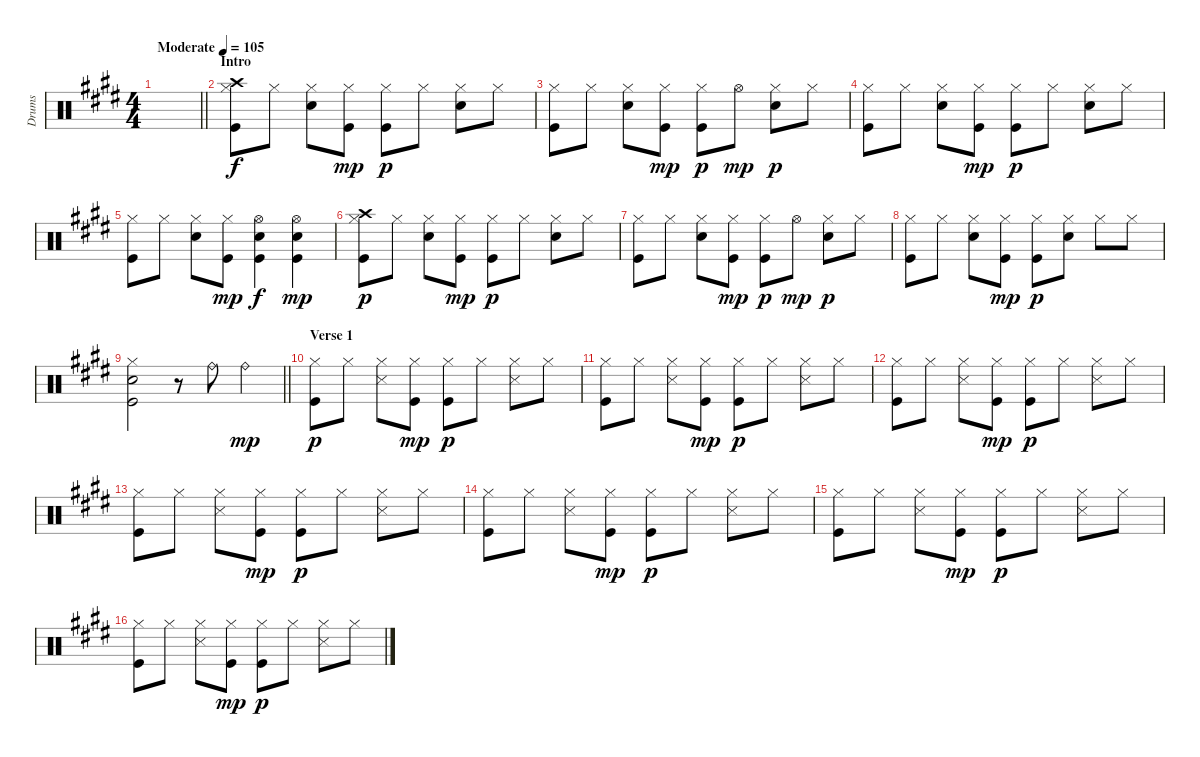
\track ("Drums" "Drums") {instrument percussion}
\staff {score}
\articulation defaults
\ts (4 4)
\tempo (105 "Moderate")
\clef neutral
\barLineRight lightlight
\ks e
|
\section ("" "Intro")
("Crash high (hit)" "Hi-Hat (closed)" "Kick (hit)").8 "Hi-Hat (closed)".8 ("Snare (hit) 2" "Hi-Hat (closed)").8 ("Hi-Hat (closed)" "Kick (hit)").8{dy mp} ("Hi-Hat (closed)" "Kick (hit)").8{dy p} "Hi-Hat (closed)".8 ("Snare (hit) 2" "Hi-Hat (closed)").8 "Hi-Hat (closed)".8 |
("Hi-Hat (closed)" "Kick (hit)").8 "Hi-Hat (closed)".8 ("Snare (hit) 2" "Hi-Hat (closed)").8 ("Hi-Hat (closed)" "Kick (hit)").8{dy mp} ("Hi-Hat (closed)" "Kick (hit)").8{dy p} "Hi-Hat (open)".8{dy mp} ("Snare (hit) 2" "Hi-Hat (closed)").8{dy p} "Hi-Hat (closed)".8 |
("Hi-Hat (closed)" "Kick (hit)").8 "Hi-Hat (closed)".8 ("Snare (hit) 2" "Hi-Hat (closed)").8 ("Hi-Hat (closed)" "Kick (hit)").8{dy mp} ("Hi-Hat (closed)" "Kick (hit)").8{dy p} "Hi-Hat (closed)".8 ("Snare (hit) 2" "Hi-Hat (closed)").8 "Hi-Hat (closed)".8 |
("Hi-Hat (closed)" "Kick (hit)").8 "Hi-Hat (closed)".8 ("Snare (hit) 2" "Hi-Hat (closed)").8 ("Hi-Hat (closed)" "Kick (hit)").8{dy mp} ("Snare (hit) 2" "Hi-Hat (open)" "Kick (hit)").4{dy f} ("Snare (hit) 2" "Hi-Hat (open)" "Kick (hit)").4{dy mp} |
("Crash high (hit)" "Hi-Hat (closed)" "Kick (hit)").8{dy p} "Hi-Hat (closed)".8 ("Snare (hit) 2" "Hi-Hat (closed)").8 ("Hi-Hat (closed)" "Kick (hit)").8{dy mp} ("Hi-Hat (closed)" "Kick (hit)").8{dy p} "Hi-Hat (closed)".8 ("Snare (hit) 2" "Hi-Hat (closed)").8 "Hi-Hat (closed)".8 |
("Hi-Hat (closed)" "Kick (hit)").8 "Hi-Hat (closed)".8 ("Snare (hit) 2" "Hi-Hat (closed)").8 ("Hi-Hat (closed)" "Kick (hit)").8{dy mp} ("Hi-Hat (closed)" "Kick (hit)").8{dy p} "Hi-Hat (open)".8{dy mp} ("Snare (hit) 2" "Hi-Hat (closed)").8{dy p} "Hi-Hat (closed)".8 |
("Hi-Hat (closed)" "Kick (hit)").8 "Hi-Hat (closed)".8 ("Snare (hit) 2" "Hi-Hat (closed)").8 ("Hi-Hat (closed)" "Kick (hit)").8{dy mp} ("Hi-Hat (closed)" "Kick (hit)").8{dy p} ("Snare (hit) 2" "Hi-Hat (closed)").8 "Hi-Hat (closed)".8 "Hi-Hat (closed)".8 |
\barLineRight lightlight
("Snare (hit) 2" "Hi-Hat (closed)" "Kick (hit)").2 r.8 "Ride (bell)".8 "Ride (bell)".4{dy mp} |
\section ("" "Verse 1")
("Hi-Hat (closed)" "Kick (hit)").8{dy p} "Hi-Hat (closed)".8 ("Snare (side stick) 3" "Hi-Hat (closed)").8 ("Hi-Hat (closed)" "Kick (hit)").8{dy mp} ("Hi-Hat (closed)" "Kick (hit)").8{dy p} "Hi-Hat (closed)".8 ("Snare (side stick) 3" "Hi-Hat (closed)").8 "Hi-Hat (closed)".8 |
("Hi-Hat (closed)" "Kick (hit)").8 "Hi-Hat (closed)".8 ("Snare (side stick) 3" "Hi-Hat (closed)").8 ("Hi-Hat (closed)" "Kick (hit)").8{dy mp} ("Hi-Hat (closed)" "Kick (hit)").8{dy p} "Hi-Hat (closed)".8 ("Snare (side stick) 3" "Hi-Hat (closed)").8 "Hi-Hat (closed)".8 |
("Hi-Hat (closed)" "Kick (hit)").8 "Hi-Hat (closed)".8 ("Snare (side stick) 3" "Hi-Hat (closed)").8 ("Hi-Hat (closed)" "Kick (hit)").8{dy mp} ("Hi-Hat (closed)" "Kick (hit)").8{dy p} "Hi-Hat (closed)".8 ("Snare (side stick) 3" "Hi-Hat (closed)").8 "Hi-Hat (closed)".8 |
("Hi-Hat (closed)" "Kick (hit)").8 "Hi-Hat (closed)".8 ("Snare (side stick) 3" "Hi-Hat (closed)").8 ("Hi-Hat (closed)" "Kick (hit)").8{dy mp} ("Hi-Hat (closed)" "Kick (hit)").8{dy p} "Hi-Hat (closed)".8 ("Snare (side stick) 3" "Hi-Hat (closed)").8 "Hi-Hat (closed)".8 |
("Hi-Hat (closed)" "Kick (hit)").8 "Hi-Hat (closed)".8 ("Snare (side stick) 3" "Hi-Hat (closed)").8 ("Hi-Hat (closed)" "Kick (hit)").8{dy mp} ("Hi-Hat (closed)" "Kick (hit)").8{dy p} "Hi-Hat (closed)".8 ("Snare (side stick) 3" "Hi-Hat (closed)").8 "Hi-Hat (closed)".8 |
("Hi-Hat (closed)" "Kick (hit)").8 "Hi-Hat (closed)".8 ("Snare (side stick) 3" "Hi-Hat (closed)").8 ("Hi-Hat (closed)" "Kick (hit)").8{dy mp} ("Hi-Hat (closed)" "Kick (hit)").8{dy p} "Hi-Hat (closed)".8 ("Snare (side stick) 3" "Hi-Hat (closed)").8 "Hi-Hat (closed)".8 |
("Hi-Hat (closed)" "Kick (hit)").8 "Hi-Hat (closed)".8 ("Snare (side stick) 3" "Hi-Hat (closed)").8 ("Hi-Hat (closed)" "Kick (hit)").8{dy mp} ("Hi-Hat (closed)" "Kick (hit)").8{dy p} "Hi-Hat (closed)".8 ("Snare (side stick) 3" "Hi-Hat (closed)").8 "Hi-Hat (closed)".8
